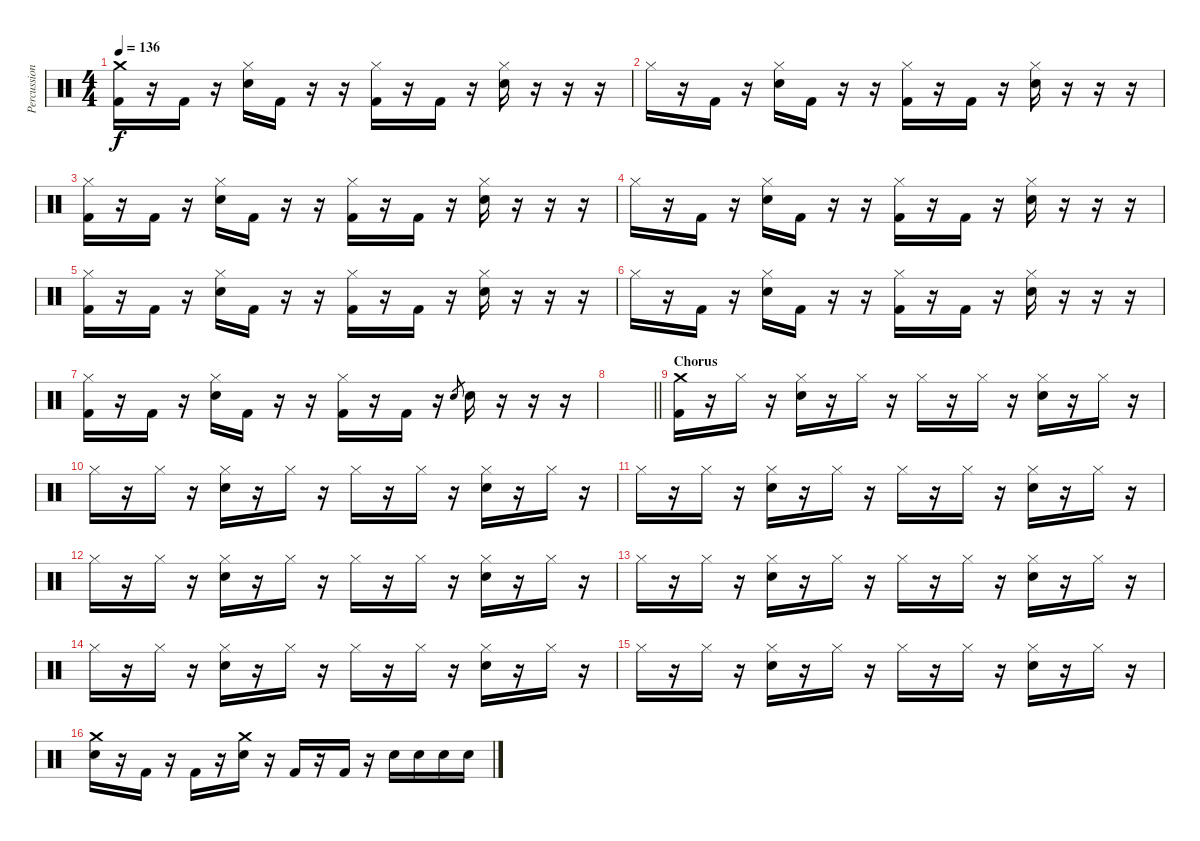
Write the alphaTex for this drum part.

\track ("Percussion" "Percussion") {instrument percussion}
\staff {score}
\articulation defaults
\ts (4 4)
\tempo 136
\clef neutral
\ks c
("Crash medium (hit)" "Kick (hit) 2").16{dy f} r.16 "Kick (hit) 2".16 r.16 ("Hi-Hat (closed)" "Electric Snare (hit)").16 "Kick (hit) 2".16 r.16 r.16 ("Hi-Hat (closed)" "Kick (hit) 2").16 r.16 "Kick (hit) 2".16 r.16 ("Hi-Hat (closed)" "Electric Snare (hit)").16 r.16 r.16 r.16 |
"Hi-Hat (closed)".16 r.16 "Kick (hit) 2".16 r.16 ("Hi-Hat (closed)" "Electric Snare (hit)").16 "Kick (hit) 2".16 r.16 r.16 ("Hi-Hat (closed)" "Kick (hit) 2").16 r.16 "Kick (hit) 2".16 r.16 ("Hi-Hat (closed)" "Electric Snare (hit)").16 r.16 r.16 r.16 |
("Hi-Hat (closed)" "Kick (hit) 2").16 r.16 "Kick (hit) 2".16 r.16 ("Hi-Hat (closed)" "Electric Snare (hit)").16 "Kick (hit) 2".16 r.16 r.16 ("Hi-Hat (closed)" "Kick (hit) 2").16 r.16 "Kick (hit) 2".16 r.16 ("Hi-Hat (closed)" "Electric Snare (hit)").16 r.16 r.16 r.16 |
"Hi-Hat (closed)".16 r.16 "Kick (hit) 2".16 r.16 ("Hi-Hat (closed)" "Electric Snare (hit)").16 "Kick (hit) 2".16 r.16 r.16 ("Hi-Hat (closed)" "Kick (hit) 2").16 r.16 "Kick (hit) 2".16 r.16 ("Hi-Hat (closed)" "Electric Snare (hit)").16 r.16 r.16 r.16 |
("Hi-Hat (closed)" "Kick (hit) 2").16 r.16 "Kick (hit) 2".16 r.16 ("Hi-Hat (closed)" "Electric Snare (hit)").16 "Kick (hit) 2".16 r.16 r.16 ("Hi-Hat (closed)" "Kick (hit) 2").16 r.16 "Kick (hit) 2".16 r.16 ("Hi-Hat (closed)" "Electric Snare (hit)").16 r.16 r.16 r.16 |
"Hi-Hat (closed)".16 r.16 "Kick (hit) 2".16 r.16 ("Hi-Hat (closed)" "Electric Snare (hit)").16 "Kick (hit) 2".16 r.16 r.16 ("Hi-Hat (closed)" "Kick (hit) 2").16 r.16 "Kick (hit) 2".16 r.16 ("Hi-Hat (closed)" "Electric Snare (hit)").16 r.16 r.16 r.16 |
("Hi-Hat (closed)" "Kick (hit) 2").16 r.16 "Kick (hit) 2".16 r.16 ("Hi-Hat (closed)" "Electric Snare (hit)").16 "Kick (hit) 2".16 r.16 r.16 ("Hi-Hat (closed)" "Kick (hit) 2").16 r.16 "Kick (hit) 2".16 r.16 "Electric Snare (hit)".8{gr} "Electric Snare (hit)".16 r.16 r.16 r.16 |
\barLineRight lightlight
|
\section ("" "Chorus")
("Crash medium (hit)" "Kick (hit) 2").16 r.16 "Hi-Hat (closed)".16 r.16 ("Hi-Hat (closed)" "Electric Snare (hit)").16 r.16 "Hi-Hat (closed)".16 r.16 "Hi-Hat (closed)".16 r.16 "Hi-Hat (closed)".16 r.16 ("Hi-Hat (closed)" "Electric Snare (hit)").16 r.16 "Hi-Hat (closed)".16 r.16 |
"Hi-Hat (closed)".16 r.16 "Hi-Hat (closed)".16 r.16 ("Hi-Hat (closed)" "Electric Snare (hit)").16 r.16 "Hi-Hat (closed)".16 r.16 "Hi-Hat (closed)".16 r.16 "Hi-Hat (closed)".16 r.16 ("Hi-Hat (closed)" "Electric Snare (hit)").16 r.16 "Hi-Hat (closed)".16 r.16 |
"Hi-Hat (closed)".16 r.16 "Hi-Hat (closed)".16 r.16 ("Hi-Hat (closed)" "Electric Snare (hit)").16 r.16 "Hi-Hat (closed)".16 r.16 "Hi-Hat (closed)".16 r.16 "Hi-Hat (closed)".16 r.16 ("Hi-Hat (closed)" "Electric Snare (hit)").16 r.16 "Hi-Hat (closed)".16 r.16 |
"Hi-Hat (closed)".16 r.16 "Hi-Hat (closed)".16 r.16 ("Hi-Hat (closed)" "Electric Snare (hit)").16 r.16 "Hi-Hat (closed)".16 r.16 "Hi-Hat (closed)".16 r.16 "Hi-Hat (closed)".16 r.16 ("Hi-Hat (closed)" "Electric Snare (hit)").16 r.16 "Hi-Hat (closed)".16 r.16 |
"Hi-Hat (closed)".16 r.16 "Hi-Hat (closed)".16 r.16 ("Hi-Hat (closed)" "Electric Snare (hit)").16 r.16 "Hi-Hat (closed)".16 r.16 "Hi-Hat (closed)".16 r.16 "Hi-Hat (closed)".16 r.16 ("Hi-Hat (closed)" "Electric Snare (hit)").16 r.16 "Hi-Hat (closed)".16 r.16 |
"Hi-Hat (closed)".16 r.16 "Hi-Hat (closed)".16 r.16 ("Hi-Hat (closed)" "Electric Snare (hit)").16 r.16 "Hi-Hat (closed)".16 r.16 "Hi-Hat (closed)".16 r.16 "Hi-Hat (closed)".16 r.16 ("Hi-Hat (closed)" "Electric Snare (hit)").16 r.16 "Hi-Hat (closed)".16 r.16 |
"Hi-Hat (closed)".16 r.16 "Hi-Hat (closed)".16 r.16 ("Hi-Hat (closed)" "Electric Snare (hit)").16 r.16 "Hi-Hat (closed)".16 r.16 "Hi-Hat (closed)".16 r.16 "Hi-Hat (closed)".16 r.16 ("Hi-Hat (closed)" "Electric Snare (hit)").16 r.16 "Hi-Hat (closed)".16 r.16 |
("Crash medium (hit)" "Electric Snare (hit)").16 r.16 "Kick (hit) 2".16 r.16 "Kick (hit) 2".16 r.16 ("Crash medium (hit)" "Electric Snare (hit)").16 r.16 "Kick (hit) 2".16 r.16 "Kick (hit) 2".16 r.16 "Electric Snare (hit)".16 "Electric Snare (hit)".16 "Electric Snare (hit)".16 "Electric Snare (hit)".16
